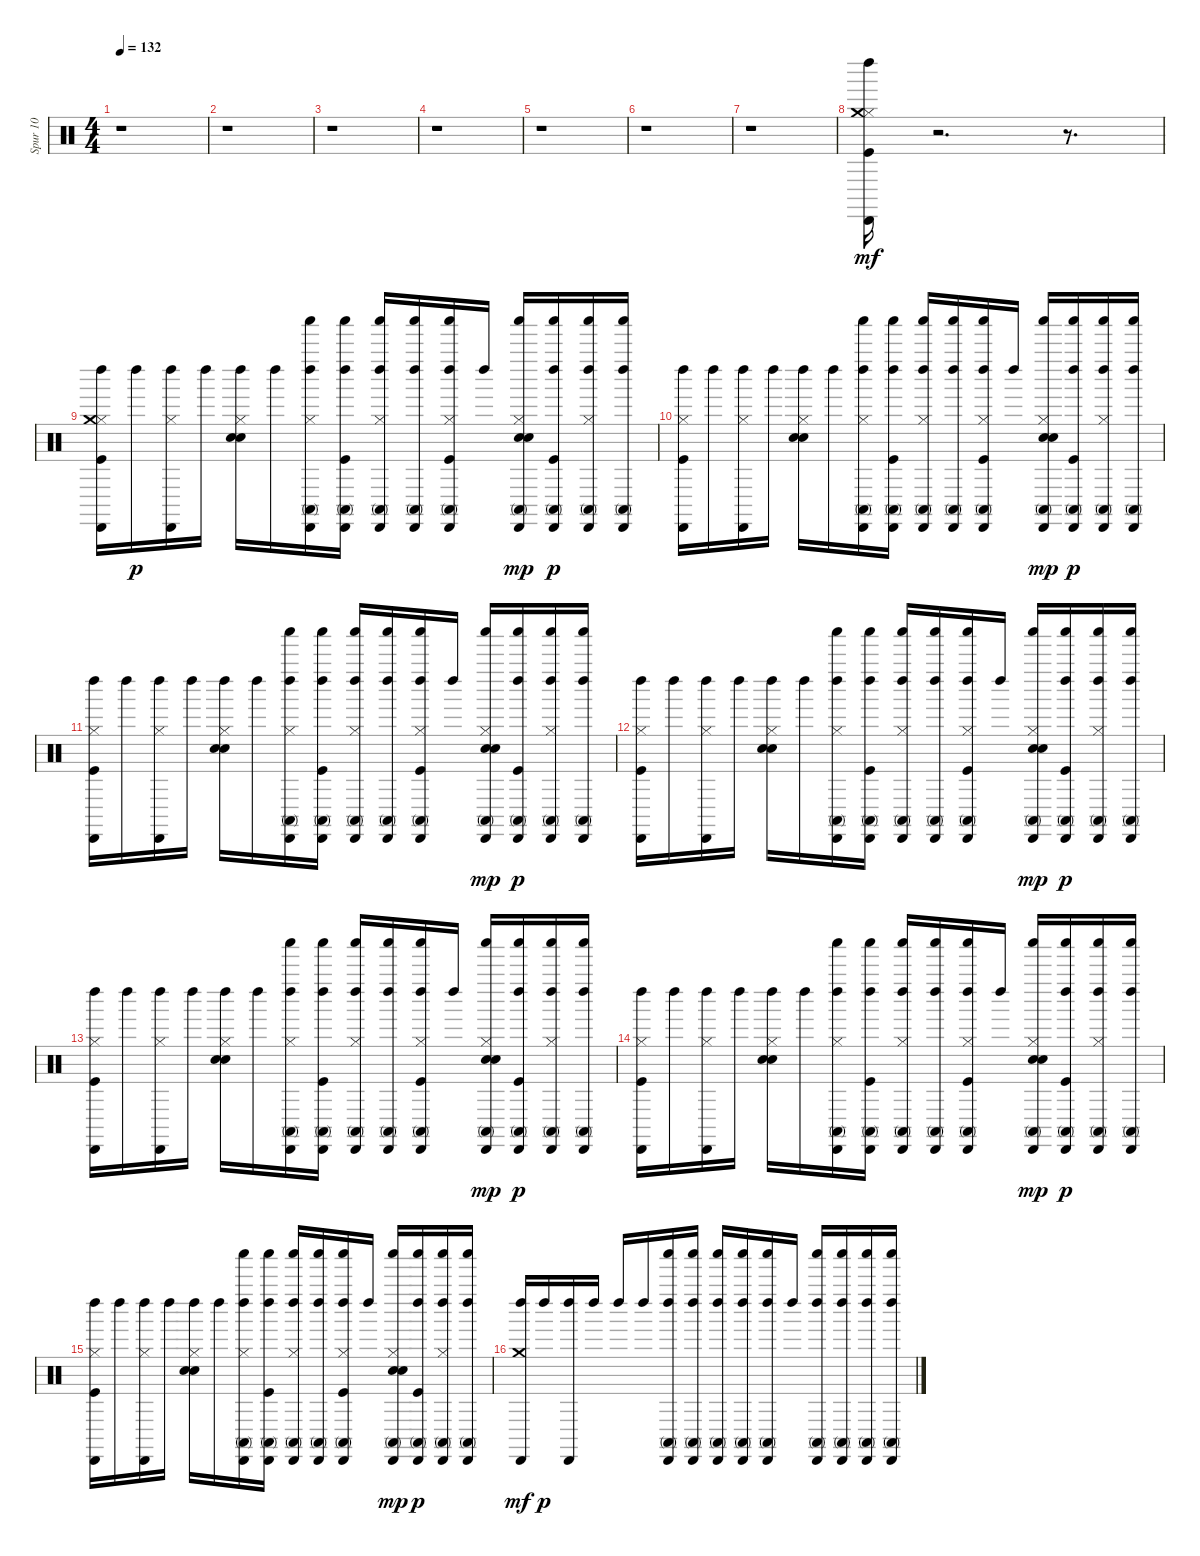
\track ("Spur 10" "Spur 10") {instrument percussion}
\staff {score}
\articulation defaults
\ts (4 4)
\tempo 132
\clef neutral
\ks c
r.1{dy mf} |
r.1 |
r.1 |
r.1 |
r.1 |
r.1 |
r.1 |
("Kick (hit)" "Hi-Hat (closed)" "Cabasa (hit)" "Left Maraca (hit)" "Crash medium (hit)").16 r.2{d} r.8{d} |
("Kick (hit)" "Hi-Hat (closed)" "Left Maraca (hit)" "Cabasa (hit)" "Crash medium (hit)").16 "Left Maraca (hit)".16{dy p} ("Hi-Hat (closed)" "Left Maraca (hit)" "Cabasa (hit)").16 "Left Maraca (hit)".16 ("Hi-Hat (closed)" "Snare (hit) 2" "Hand Clap (hit)" "Left Maraca (hit)").16 "Left Maraca (hit)".16 ("Shaker (hit)" "Hi-Hat (closed)" "Cabasa (hit)" "Conga high (mute)" "Left Maraca (hit)").16 ("Shaker (hit)" "Kick (hit)" "Cabasa (hit)" "Conga high (mute)" "Left Maraca (hit)").16 ("Shaker (hit)" "Hi-Hat (closed)" "Cabasa (hit)" "Conga high (mute)" "Left Maraca (hit)").16 ("Shaker (hit)" "Cabasa (hit)" "Conga high (mute)" "Left Maraca (hit)").16 ("Shaker (hit)" "Kick (hit)" "Hi-Hat (closed)" "Cabasa (hit)" "Conga high (mute)" "Left Maraca (hit)").16 "Left Maraca (hit)".16 ("Shaker (hit)" "Hi-Hat (closed)" "Snare (hit) 2" "Cabasa (hit)" "Conga high (mute)" "Hand Clap (hit)").16{dy mp} ("Shaker (hit)" "Kick (hit)" "Cabasa (hit)" "Conga high (mute)" "Left Maraca (hit)").16{dy p} ("Shaker (hit)" "Hi-Hat (closed)" "Cabasa (hit)" "Conga high (mute)" "Left Maraca (hit)").16 ("Shaker (hit)" "Cabasa (hit)" "Conga high (mute)" "Left Maraca (hit)").16 |
("Kick (hit)" "Hi-Hat (closed)" "Cabasa (hit)" "Left Maraca (hit)").16 "Left Maraca (hit)".16 ("Hi-Hat (closed)" "Cabasa (hit)" "Left Maraca (hit)").16 "Left Maraca (hit)".16 ("Hi-Hat (closed)" "Snare (hit) 2" "Hand Clap (hit)" "Left Maraca (hit)").16 "Left Maraca (hit)".16 ("Shaker (hit)" "Hi-Hat (closed)" "Conga high (mute)" "Cabasa (hit)" "Left Maraca (hit)").16 ("Shaker (hit)" "Kick (hit)" "Conga high (mute)" "Cabasa (hit)" "Left Maraca (hit)").16 ("Shaker (hit)" "Hi-Hat (closed)" "Conga high (mute)" "Cabasa (hit)" "Left Maraca (hit)").16 ("Shaker (hit)" "Conga high (mute)" "Cabasa (hit)" "Left Maraca (hit)").16 ("Shaker (hit)" "Kick (hit)" "Hi-Hat (closed)" "Conga high (mute)" "Cabasa (hit)" "Left Maraca (hit)").16 "Left Maraca (hit)".16 ("Shaker (hit)" "Hi-Hat (closed)" "Snare (hit) 2" "Conga high (mute)" "Cabasa (hit)" "Hand Clap (hit)").16{dy mp} ("Shaker (hit)" "Kick (hit)" "Conga high (mute)" "Cabasa (hit)" "Left Maraca (hit)").16{dy p} ("Shaker (hit)" "Hi-Hat (closed)" "Conga high (mute)" "Cabasa (hit)" "Left Maraca (hit)").16 ("Shaker (hit)" "Conga high (mute)" "Cabasa (hit)" "Left Maraca (hit)").16 |
("Kick (hit)" "Hi-Hat (closed)" "Cabasa (hit)" "Left Maraca (hit)").16 "Left Maraca (hit)".16 ("Hi-Hat (closed)" "Cabasa (hit)" "Left Maraca (hit)").16 "Left Maraca (hit)".16 ("Hi-Hat (closed)" "Snare (hit) 2" "Hand Clap (hit)" "Left Maraca (hit)").16 "Left Maraca (hit)".16 ("Shaker (hit)" "Hi-Hat (closed)" "Conga high (mute)" "Cabasa (hit)" "Left Maraca (hit)").16 ("Shaker (hit)" "Kick (hit)" "Conga high (mute)" "Cabasa (hit)" "Left Maraca (hit)").16 ("Shaker (hit)" "Hi-Hat (closed)" "Conga high (mute)" "Cabasa (hit)" "Left Maraca (hit)").16 ("Shaker (hit)" "Conga high (mute)" "Cabasa (hit)" "Left Maraca (hit)").16 ("Shaker (hit)" "Kick (hit)" "Hi-Hat (closed)" "Conga high (mute)" "Cabasa (hit)" "Left Maraca (hit)").16 "Left Maraca (hit)".16 ("Shaker (hit)" "Hi-Hat (closed)" "Snare (hit) 2" "Conga high (mute)" "Cabasa (hit)" "Hand Clap (hit)").16{dy mp} ("Shaker (hit)" "Kick (hit)" "Conga high (mute)" "Cabasa (hit)" "Left Maraca (hit)").16{dy p} ("Shaker (hit)" "Hi-Hat (closed)" "Conga high (mute)" "Cabasa (hit)" "Left Maraca (hit)").16 ("Shaker (hit)" "Conga high (mute)" "Cabasa (hit)" "Left Maraca (hit)").16 |
("Kick (hit)" "Hi-Hat (closed)" "Cabasa (hit)" "Left Maraca (hit)").16 "Left Maraca (hit)".16 ("Hi-Hat (closed)" "Cabasa (hit)" "Left Maraca (hit)").16 "Left Maraca (hit)".16 ("Hi-Hat (closed)" "Snare (hit) 2" "Hand Clap (hit)" "Left Maraca (hit)").16 "Left Maraca (hit)".16 ("Shaker (hit)" "Hi-Hat (closed)" "Conga high (mute)" "Cabasa (hit)" "Left Maraca (hit)").16 ("Shaker (hit)" "Kick (hit)" "Conga high (mute)" "Cabasa (hit)" "Left Maraca (hit)").16 ("Shaker (hit)" "Hi-Hat (closed)" "Conga high (mute)" "Cabasa (hit)" "Left Maraca (hit)").16 ("Shaker (hit)" "Conga high (mute)" "Cabasa (hit)" "Left Maraca (hit)").16 ("Shaker (hit)" "Kick (hit)" "Hi-Hat (closed)" "Conga high (mute)" "Cabasa (hit)" "Left Maraca (hit)").16 "Left Maraca (hit)".16 ("Shaker (hit)" "Hi-Hat (closed)" "Snare (hit) 2" "Conga high (mute)" "Cabasa (hit)" "Hand Clap (hit)").16{dy mp} ("Shaker (hit)" "Kick (hit)" "Conga high (mute)" "Cabasa (hit)" "Left Maraca (hit)").16{dy p} ("Shaker (hit)" "Hi-Hat (closed)" "Conga high (mute)" "Cabasa (hit)" "Left Maraca (hit)").16 ("Shaker (hit)" "Conga high (mute)" "Cabasa (hit)" "Left Maraca (hit)").16 |
("Kick (hit)" "Hi-Hat (closed)" "Left Maraca (hit)" "Cabasa (hit)").16 "Left Maraca (hit)".16 ("Hi-Hat (closed)" "Left Maraca (hit)" "Cabasa (hit)").16 "Left Maraca (hit)".16 ("Hi-Hat (closed)" "Snare (hit) 2" "Hand Clap (hit)" "Left Maraca (hit)").16 "Left Maraca (hit)".16 ("Shaker (hit)" "Hi-Hat (closed)" "Conga high (mute)" "Cabasa (hit)" "Left Maraca (hit)").16 ("Shaker (hit)" "Kick (hit)" "Conga high (mute)" "Cabasa (hit)" "Left Maraca (hit)").16 ("Shaker (hit)" "Hi-Hat (closed)" "Conga high (mute)" "Cabasa (hit)" "Left Maraca (hit)").16 ("Shaker (hit)" "Conga high (mute)" "Cabasa (hit)" "Left Maraca (hit)").16 ("Shaker (hit)" "Kick (hit)" "Hi-Hat (closed)" "Conga high (mute)" "Cabasa (hit)" "Left Maraca (hit)").16 "Left Maraca (hit)".16 ("Shaker (hit)" "Hi-Hat (closed)" "Snare (hit) 2" "Conga high (mute)" "Cabasa (hit)" "Hand Clap (hit)").16{dy mp} ("Shaker (hit)" "Kick (hit)" "Conga high (mute)" "Cabasa (hit)" "Left Maraca (hit)").16{dy p} ("Shaker (hit)" "Hi-Hat (closed)" "Conga high (mute)" "Cabasa (hit)" "Left Maraca (hit)").16 ("Shaker (hit)" "Conga high (mute)" "Cabasa (hit)" "Left Maraca (hit)").16 |
("Kick (hit)" "Hi-Hat (closed)" "Cabasa (hit)" "Left Maraca (hit)").16 "Left Maraca (hit)".16 ("Hi-Hat (closed)" "Cabasa (hit)" "Left Maraca (hit)").16 "Left Maraca (hit)".16 ("Hi-Hat (closed)" "Snare (hit) 2" "Hand Clap (hit)" "Left Maraca (hit)").16 "Left Maraca (hit)".16 ("Shaker (hit)" "Hi-Hat (closed)" "Cabasa (hit)" "Conga high (mute)" "Left Maraca (hit)").16 ("Shaker (hit)" "Kick (hit)" "Cabasa (hit)" "Conga high (mute)" "Left Maraca (hit)").16 ("Shaker (hit)" "Hi-Hat (closed)" "Cabasa (hit)" "Conga high (mute)" "Left Maraca (hit)").16 ("Shaker (hit)" "Cabasa (hit)" "Conga high (mute)" "Left Maraca (hit)").16 ("Shaker (hit)" "Kick (hit)" "Hi-Hat (closed)" "Cabasa (hit)" "Conga high (mute)" "Left Maraca (hit)").16 "Left Maraca (hit)".16 ("Shaker (hit)" "Hi-Hat (closed)" "Snare (hit) 2" "Cabasa (hit)" "Conga high (mute)" "Hand Clap (hit)").16{dy mp} ("Shaker (hit)" "Kick (hit)" "Cabasa (hit)" "Conga high (mute)" "Left Maraca (hit)").16{dy p} ("Shaker (hit)" "Hi-Hat (closed)" "Cabasa (hit)" "Conga high (mute)" "Left Maraca (hit)").16 ("Shaker (hit)" "Cabasa (hit)" "Conga high (mute)" "Left Maraca (hit)").16 |
("Kick (hit)" "Hi-Hat (closed)" "Cabasa (hit)" "Left Maraca (hit)").16 "Left Maraca (hit)".16 ("Hi-Hat (closed)" "Cabasa (hit)" "Left Maraca (hit)").16 "Left Maraca (hit)".16 ("Hi-Hat (closed)" "Snare (hit) 2" "Hand Clap (hit)" "Left Maraca (hit)").16 "Left Maraca (hit)".16 ("Shaker (hit)" "Hi-Hat (closed)" "Conga high (mute)" "Cabasa (hit)" "Left Maraca (hit)").16 ("Shaker (hit)" "Kick (hit)" "Conga high (mute)" "Cabasa (hit)" "Left Maraca (hit)").16 ("Shaker (hit)" "Hi-Hat (closed)" "Conga high (mute)" "Cabasa (hit)" "Left Maraca (hit)").16 ("Shaker (hit)" "Conga high (mute)" "Cabasa (hit)" "Left Maraca (hit)").16 ("Shaker (hit)" "Kick (hit)" "Hi-Hat (closed)" "Conga high (mute)" "Cabasa (hit)" "Left Maraca (hit)").16 "Left Maraca (hit)".16 ("Shaker (hit)" "Hi-Hat (closed)" "Snare (hit) 2" "Conga high (mute)" "Cabasa (hit)" "Hand Clap (hit)").16{dy mp} ("Shaker (hit)" "Kick (hit)" "Conga high (mute)" "Cabasa (hit)" "Left Maraca (hit)").16{dy p} ("Shaker (hit)" "Hi-Hat (closed)" "Conga high (mute)" "Cabasa (hit)" "Left Maraca (hit)").16 ("Shaker (hit)" "Conga high (mute)" "Cabasa (hit)" "Left Maraca (hit)").16 |
("Cabasa (hit)" "Left Maraca (hit)" "Crash medium (hit)").16{dy mf} "Left Maraca (hit)".16{dy p} ("Cabasa (hit)" "Left Maraca (hit)").16 "Left Maraca (hit)".16 "Left Maraca (hit)".16 "Left Maraca (hit)".16 ("Shaker (hit)" "Conga high (mute)" "Cabasa (hit)" "Left Maraca (hit)").16 ("Shaker (hit)" "Conga high (mute)" "Cabasa (hit)" "Left Maraca (hit)").16 ("Shaker (hit)" "Conga high (mute)" "Cabasa (hit)" "Left Maraca (hit)").16 ("Shaker (hit)" "Conga high (mute)" "Cabasa (hit)" "Left Maraca (hit)").16 ("Shaker (hit)" "Conga high (mute)" "Cabasa (hit)" "Left Maraca (hit)").16 "Left Maraca (hit)".16 ("Shaker (hit)" "Conga high (mute)" "Cabasa (hit)" "Left Maraca (hit)").16 ("Shaker (hit)" "Conga high (mute)" "Cabasa (hit)" "Left Maraca (hit)").16 ("Shaker (hit)" "Conga high (mute)" "Cabasa (hit)" "Left Maraca (hit)").16 ("Shaker (hit)" "Conga high (mute)" "Cabasa (hit)" "Left Maraca (hit)").16
